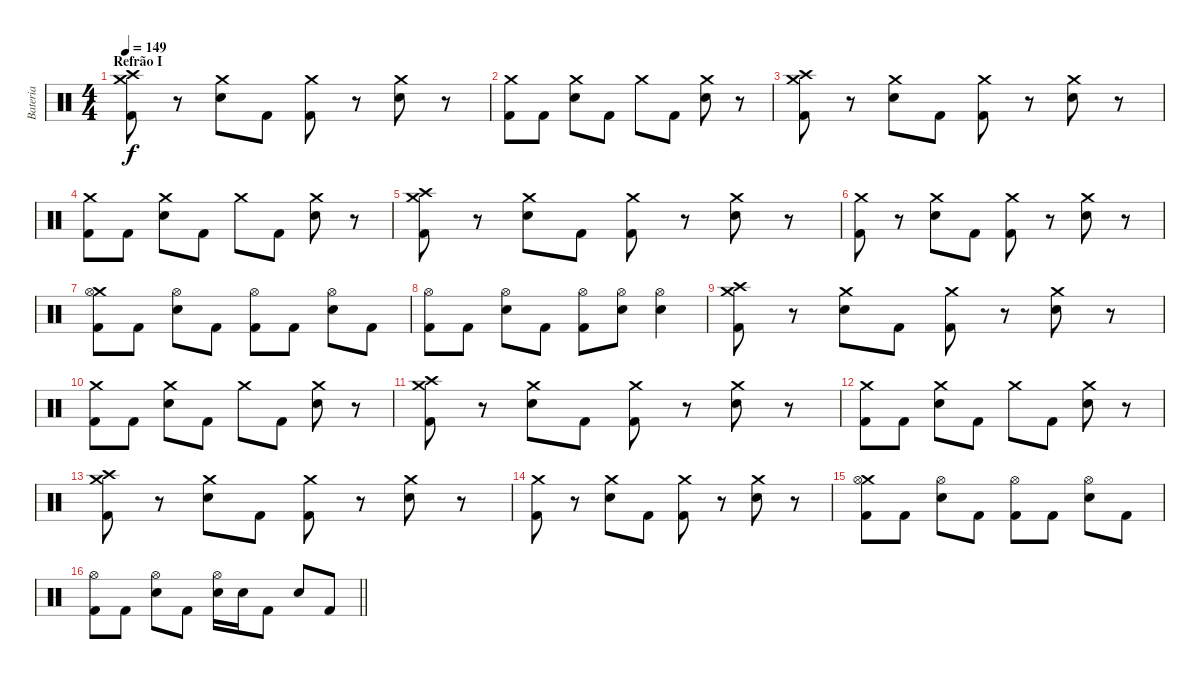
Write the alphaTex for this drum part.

\track ("Bateria" "Bateria") {instrument percussion}
\staff {score}
\articulation defaults
\ts (4 4)
\section ("" "Refrão I")
\tempo 149
\clef neutral
\ks c
("Crash high (hit)" "Crash medium (hit)" "Kick (hit) 2").8{dy f} r.8 ("Crash medium (hit)" "Electric Snare (hit)").8 "Kick (hit) 2".8 ("Crash medium (hit)" "Kick (hit) 2").8 r.8 ("Crash medium (hit)" "Electric Snare (hit)").8 r.8 |
("Crash medium (hit)" "Kick (hit) 2").8 "Kick (hit) 2".8 ("Crash medium (hit)" "Electric Snare (hit)").8 "Kick (hit) 2".8 "Crash medium (hit)".8 "Kick (hit) 2".8 ("Crash medium (hit)" "Electric Snare (hit)").8 r.8 |
("Crash high (hit)" "Crash medium (hit)" "Kick (hit) 2").8 r.8 ("Crash medium (hit)" "Electric Snare (hit)").8 "Kick (hit) 2".8 ("Crash medium (hit)" "Kick (hit) 2").8 r.8 ("Crash medium (hit)" "Electric Snare (hit)").8 r.8 |
("Crash medium (hit)" "Kick (hit) 2").8 "Kick (hit) 2".8 ("Crash medium (hit)" "Electric Snare (hit)").8 "Kick (hit) 2".8 "Crash medium (hit)".8 "Kick (hit) 2".8 ("Crash medium (hit)" "Electric Snare (hit)").8 r.8 |
("Crash high (hit)" "Crash medium (hit)" "Kick (hit) 2").8 r.8 ("Crash medium (hit)" "Electric Snare (hit)").8 "Kick (hit) 2".8 ("Crash medium (hit)" "Kick (hit) 2").8 r.8 ("Crash medium (hit)" "Electric Snare (hit)").8 r.8 |
("Crash medium (hit)" "Kick (hit) 2").8 r.8 ("Crash medium (hit)" "Electric Snare (hit)").8 "Kick (hit) 2".8 ("Crash medium (hit)" "Kick (hit) 2").8 r.8 ("Crash medium (hit)" "Electric Snare (hit)").8 r.8 |
("Crash medium (hit)" "Hi-Hat (open)" "Kick (hit) 2").8 "Kick (hit) 2".8 ("Hi-Hat (open)" "Electric Snare (hit)").8 "Kick (hit) 2".8 ("Hi-Hat (open)" "Kick (hit) 2").8 "Kick (hit) 2".8 ("Hi-Hat (open)" "Electric Snare (hit)").8 "Kick (hit) 2".8 |
("Hi-Hat (open)" "Kick (hit) 2").8 "Kick (hit) 2".8 ("Hi-Hat (open)" "Electric Snare (hit)").8 "Kick (hit) 2".8 ("Hi-Hat (open)" "Kick (hit) 2").8 ("Hi-Hat (open)" "Electric Snare (hit)").8 ("Hi-Hat (open)" "Electric Snare (hit)").4 |
("Crash high (hit)" "Crash medium (hit)" "Kick (hit) 2").8 r.8 ("Crash medium (hit)" "Electric Snare (hit)").8 "Kick (hit) 2".8 ("Crash medium (hit)" "Kick (hit) 2").8 r.8 ("Crash medium (hit)" "Electric Snare (hit)").8 r.8 |
("Crash medium (hit)" "Kick (hit) 2").8 "Kick (hit) 2".8 ("Crash medium (hit)" "Electric Snare (hit)").8 "Kick (hit) 2".8 "Crash medium (hit)".8 "Kick (hit) 2".8 ("Crash medium (hit)" "Electric Snare (hit)").8 r.8 |
("Crash high (hit)" "Crash medium (hit)" "Kick (hit) 2").8 r.8 ("Crash medium (hit)" "Electric Snare (hit)").8 "Kick (hit) 2".8 ("Crash medium (hit)" "Kick (hit) 2").8 r.8 ("Crash medium (hit)" "Electric Snare (hit)").8 r.8 |
("Crash medium (hit)" "Kick (hit) 2").8 "Kick (hit) 2".8 ("Crash medium (hit)" "Electric Snare (hit)").8 "Kick (hit) 2".8 "Crash medium (hit)".8 "Kick (hit) 2".8 ("Crash medium (hit)" "Electric Snare (hit)").8 r.8 |
("Crash high (hit)" "Crash medium (hit)" "Kick (hit) 2").8 r.8 ("Crash medium (hit)" "Electric Snare (hit)").8 "Kick (hit) 2".8 ("Crash medium (hit)" "Kick (hit) 2").8 r.8 ("Crash medium (hit)" "Electric Snare (hit)").8 r.8 |
("Crash medium (hit)" "Kick (hit) 2").8 r.8 ("Crash medium (hit)" "Electric Snare (hit)").8 "Kick (hit) 2".8 ("Crash medium (hit)" "Kick (hit) 2").8 r.8 ("Crash medium (hit)" "Electric Snare (hit)").8 r.8 |
("Crash medium (hit)" "Hi-Hat (open)" "Kick (hit) 2").8 "Kick (hit) 2".8 ("Hi-Hat (open)" "Electric Snare (hit)").8 "Kick (hit) 2".8 ("Hi-Hat (open)" "Kick (hit) 2").8 "Kick (hit) 2".8 ("Hi-Hat (open)" "Electric Snare (hit)").8 "Kick (hit) 2".8 |
\barLineRight lightlight
("Hi-Hat (open)" "Kick (hit) 2").8 "Kick (hit) 2".8 ("Hi-Hat (open)" "Electric Snare (hit)").8 "Kick (hit) 2".8 ("Hi-Hat (open)" "Electric Snare (hit)").16 "Electric Snare (hit)".16 "Kick (hit) 2".8 "Electric Snare (hit)".8 "Kick (hit) 2".8
